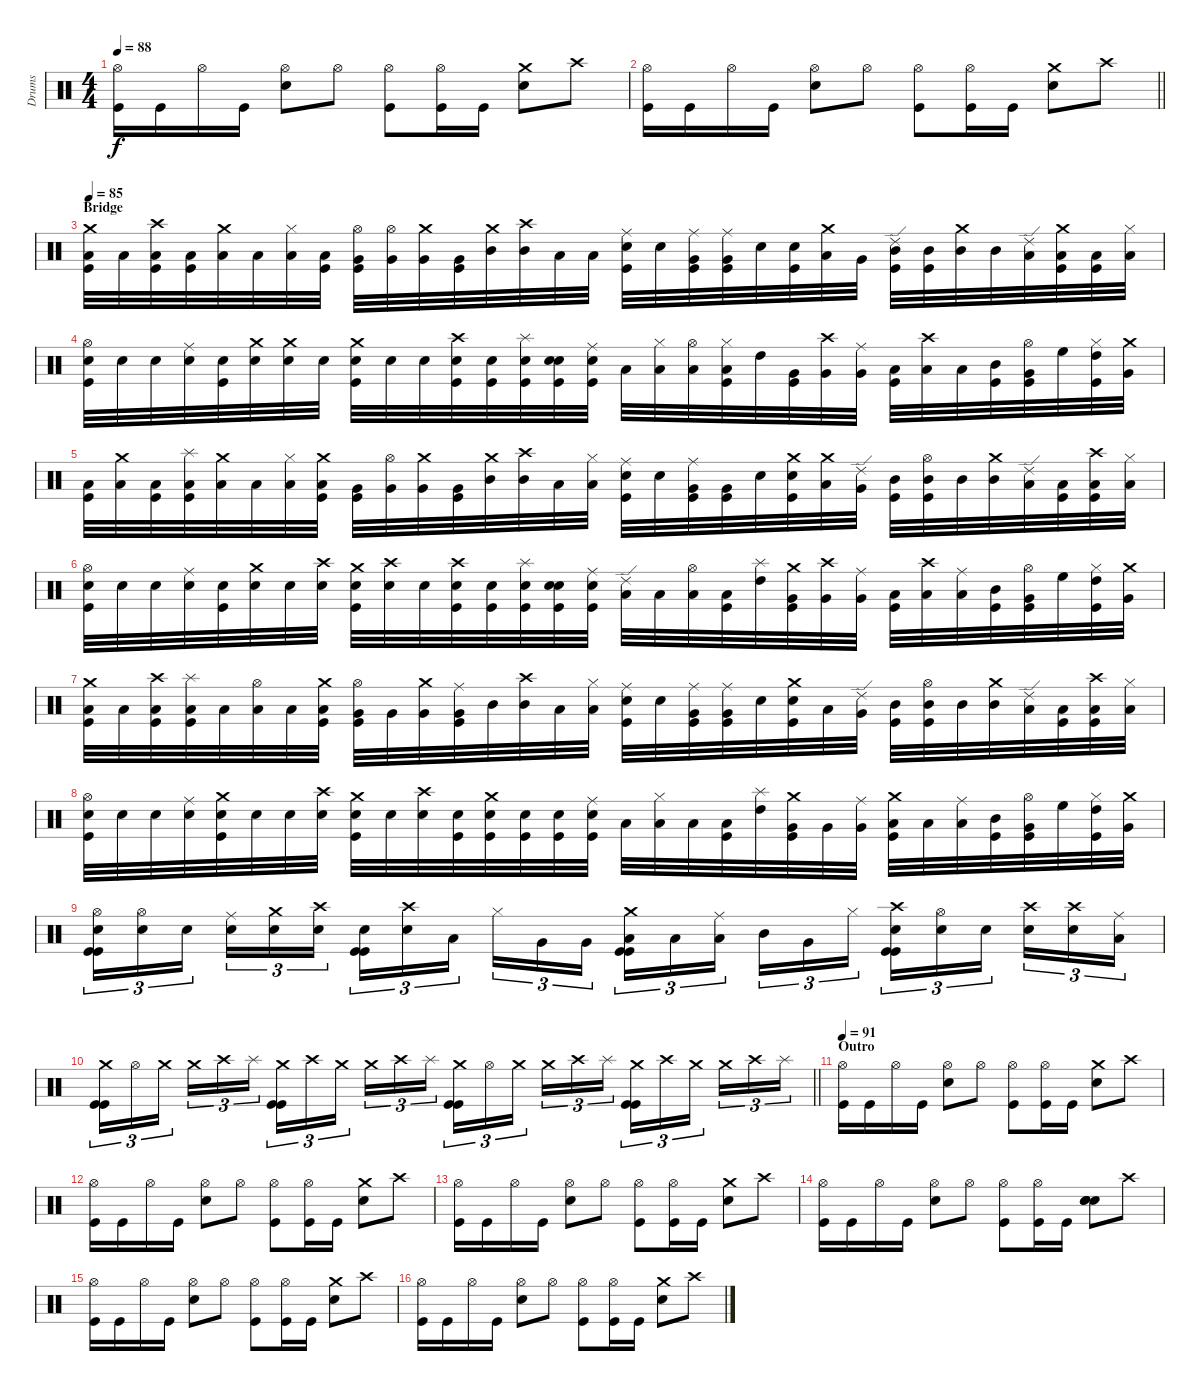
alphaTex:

\track ("Drums" "Drums") {instrument percussion}
\staff {score}
\articulation defaults
\ts (4 4)
\tempo 88
\clef neutral
\ks c
("Hi-Hat (open)" "Kick (hit)").16{dy f} "Kick (hit)".16 "Hi-Hat (open)".16 "Kick (hit)".16 ("Hi-Hat (open)" "Snare (hit) 2").8 "Hi-Hat (open)".8 ("Hi-Hat (open)" "Kick (hit)").8 ("Hi-Hat (open)" "Kick (hit)").16 "Kick (hit)".16 ("Crash medium (hit)" "Snare (hit) 2").8 "Crash high (hit)".8 |
\barLineRight lightlight
("Hi-Hat (open)" "Kick (hit)").16 "Kick (hit)".16 "Hi-Hat (open)".16 "Kick (hit)".16 ("Hi-Hat (open)" "Snare (hit) 2").8 "Hi-Hat (open)".8 ("Hi-Hat (open)" "Kick (hit)").8 ("Hi-Hat (open)" "Kick (hit)").16 "Kick (hit)".16 ("Crash medium (hit)" "Snare (hit) 2").8 "Crash high (hit)".8 |
\section ("" "Bridge")
\tempo 85
("Crash medium (hit)" "Low Floor Tom (hit)" "Kick (hit)").32 "Low Floor Tom (hit)".32 ("Crash high (hit)" "Low Floor Tom (hit)" "Kick (hit)").32 ("Low Floor Tom (hit)" "Kick (hit)").32 ("Crash medium (hit)" "Low Floor Tom (hit)").32 "Low Floor Tom (hit)".32 ("Hi-Hat (closed)" "Low Floor Tom (hit)").32 ("Low Floor Tom (hit)" "Kick (hit)").32 ("Hi-Hat (open)" "Very Low Tom (hit)" "Kick (hit)").32 ("Hi-Hat (open)" "Very Low Tom (hit)").32 ("Crash medium (hit)" "Very Low Tom (hit)").32 ("Very Low Tom (hit)" "Kick (hit)").32 ("Crash medium (hit)" "Mid Tom (hit)").32 ("Crash high (hit)" "Mid Tom (hit)").32 "Low Tom (hit)".32 "Low Tom (hit)".32 ("Ride (middle)" "Snare (hit) 2" "Kick (hit)").32 "Snare (hit) 2".32 ("Ride (middle)" "Very Low Tom (hit)" "Kick (hit)").32 ("Ride (middle)" "Very Low Tom (hit)" "Kick (hit)").32 "Snare (hit) 2".32 ("Snare (hit) 2" "Kick (hit)").32 ("Crash medium (hit)" "Low Floor Tom (hit)").32 "Very Low Tom (hit)".32 ("Ride (edge) 2" "Mid Tom (hit)" "Kick (hit)").32 ("Mid Tom (hit)" "Kick (hit)").32 ("Crash medium (hit)" "Mid Tom (hit)").32 "Mid Tom (hit)".32 ("Ride (edge) 2" "Low Tom (hit)").32 ("Crash medium (hit)" "Low Tom (hit)" "Kick (hit)").32 ("Low Tom (hit)" "Kick (hit)").32 ("Hi-Hat (closed)" "Low Tom (hit)").32 |
("Hi-Hat (open)" "Snare (hit) 2" "Kick (hit)").32 "Snare (hit) 2".32 "Snare (hit) 2".32 ("Ride (middle)" "Snare (hit) 2").32 ("Snare (hit) 2" "Kick (hit)").32 ("Crash medium (hit)" "Snare (hit) 2").32 ("Crash medium (hit)" "Snare (hit) 2").32 "Snare (hit) 2".32 ("Crash medium (hit)" "Snare (hit) 2" "Kick (hit)").32 "Snare (hit) 2".32 "Snare (hit) 2".32 ("Crash high (hit)" "Snare (hit) 2" "Kick (hit)").32 ("Snare (hit) 2" "Kick (hit)").32 ("Splash (hit)" "Snare (hit) 2" "Kick (hit)").32 ("Snare (hit)" "Snare (hit) 2" "Kick (hit)").32 ("Ride (middle)" "Snare (hit) 2" "Kick (hit)").32 "Low Floor Tom (hit)".32 ("Hi-Hat (closed)" "Low Floor Tom (hit)").32 ("Hi-Hat (open)" "Low Tom (hit)").32 ("Hi-Hat (closed)" "Low Floor Tom (hit)" "Kick (hit)").32 "High Tom (hit)".32 ("Very Low Tom (hit)" "Kick (hit)").32 ("Crash high (hit)" "Very Low Tom (hit)").32 ("Ride (middle)" "Very Low Tom (hit)").32 ("Low Tom (hit)" "Kick (hit)").32 ("Crash high (hit)" "Low Tom (hit)").32 "Low Tom (hit)".32 ("Mid Tom (hit)" "Kick (hit)").32 ("Hi-Hat (open)" "Very Low Tom (hit)" "Kick (hit)").32 "High Floor Tom (hit)".32 ("Hi-Hat (closed)" "High Tom (hit)" "Kick (hit)").32 ("Crash medium (hit)" "Very Low Tom (hit)").32 |
("Low Floor Tom (hit)" "Kick (hit)").32 ("Crash medium (hit)" "Low Floor Tom (hit)").32 ("Low Floor Tom (hit)" "Kick (hit)").32 ("Splash (hit)" "Low Floor Tom (hit)" "Kick (hit)").32 ("Crash medium (hit)" "Low Floor Tom (hit)").32 "Low Floor Tom (hit)".32 ("Hi-Hat (closed)" "Low Floor Tom (hit)").32 ("Crash medium (hit)" "Low Floor Tom (hit)" "Kick (hit)").32 ("Very Low Tom (hit)" "Kick (hit)").32 ("Hi-Hat (open)" "Very Low Tom (hit)").32 ("Crash medium (hit)" "Very Low Tom (hit)").32 ("Very Low Tom (hit)" "Kick (hit)").32 ("Crash medium (hit)" "Mid Tom (hit)").32 ("Crash high (hit)" "Mid Tom (hit)").32 "Low Tom (hit)".32 ("Hi-Hat (closed)" "Low Tom (hit)").32 ("Ride (middle)" "Snare (hit) 2" "Kick (hit)").32 "Snare (hit) 2".32 ("Ride (middle)" "Very Low Tom (hit)" "Kick (hit)").32 ("Very Low Tom (hit)" "Kick (hit)").32 "Snare (hit) 2".32 ("Crash medium (hit)" "Snare (hit) 2" "Kick (hit)").32 ("Crash medium (hit)" "Low Floor Tom (hit)").32 ("Ride (edge) 2" "Very Low Tom (hit)").32 ("Mid Tom (hit)" "Kick (hit)").32 ("Hi-Hat (open)" "Mid Tom (hit)" "Kick (hit)").32 "Mid Tom (hit)".32 ("Crash medium (hit)" "Mid Tom (hit)").32 ("Ride (edge) 2" "Low Tom (hit)").32 ("Low Tom (hit)" "Kick (hit)").32 ("Crash high (hit)" "Low Tom (hit)" "Kick (hit)").32 ("Hi-Hat (closed)" "Low Tom (hit)").32 |
("Hi-Hat (open)" "Snare (hit) 2" "Kick (hit)").32 "Snare (hit) 2".32 "Snare (hit) 2".32 ("Ride (middle)" "Snare (hit) 2").32 ("Snare (hit) 2" "Kick (hit)").32 ("Crash medium (hit)" "Snare (hit) 2").32 "Snare (hit) 2".32 ("Crash high (hit)" "Snare (hit) 2").32 ("Crash medium (hit)" "Snare (hit) 2" "Kick (hit)").32 ("Crash high (hit)" "Snare (hit) 2").32 "Snare (hit) 2".32 ("Crash high (hit)" "Snare (hit) 2" "Kick (hit)").32 ("Snare (hit) 2" "Kick (hit)").32 ("Splash (hit)" "Snare (hit) 2" "Kick (hit)").32 ("Snare (hit)" "Snare (hit) 2" "Kick (hit)").32 ("Ride (middle)" "Snare (hit) 2" "Kick (hit)").32 ("Ride (edge) 2" "Low Floor Tom (hit)").32 "Low Floor Tom (hit)".32 ("Hi-Hat (open)" "Low Tom (hit)").32 ("Low Floor Tom (hit)" "Kick (hit)").32 ("Splash (hit)" "High Tom (hit)").32 ("Crash medium (hit)" "Very Low Tom (hit)" "Kick (hit)").32 ("Crash high (hit)" "Very Low Tom (hit)").32 ("Ride (middle)" "Very Low Tom (hit)").32 ("Low Tom (hit)" "Kick (hit)").32 ("Crash high (hit)" "Low Tom (hit)").32 ("Ride (middle)" "Low Tom (hit)").32 ("Mid Tom (hit)" "Kick (hit)").32 ("Hi-Hat (open)" "Very Low Tom (hit)" "Kick (hit)").32 "High Floor Tom (hit)".32 ("Hi-Hat (closed)" "High Tom (hit)" "Kick (hit)").32 ("Crash medium (hit)" "Very Low Tom (hit)").32 |
("Crash medium (hit)" "Low Floor Tom (hit)" "Kick (hit)").32 "Low Floor Tom (hit)".32 ("Crash high (hit)" "Low Floor Tom (hit)" "Kick (hit)").32 ("Splash (hit)" "Low Floor Tom (hit)" "Kick (hit)").32 "Low Floor Tom (hit)".32 ("Hi-Hat (open)" "Low Floor Tom (hit)").32 "Low Floor Tom (hit)".32 ("Crash medium (hit)" "Low Floor Tom (hit)" "Kick (hit)").32 ("Hi-Hat (open)" "Very Low Tom (hit)" "Kick (hit)").32 "Very Low Tom (hit)".32 ("Crash medium (hit)" "Very Low Tom (hit)").32 ("Ride (middle)" "Very Low Tom (hit)" "Kick (hit)").32 "Mid Tom (hit)".32 ("Crash high (hit)" "Mid Tom (hit)").32 "Low Tom (hit)".32 ("Hi-Hat (closed)" "Low Tom (hit)").32 ("Ride (middle)" "Snare (hit) 2" "Kick (hit)").32 "Snare (hit) 2".32 ("Ride (middle)" "Very Low Tom (hit)" "Kick (hit)").32 ("Ride (middle)" "Very Low Tom (hit)" "Kick (hit)").32 "Snare (hit) 2".32 ("Crash medium (hit)" "Snare (hit) 2" "Kick (hit)").32 "Low Floor Tom (hit)".32 ("Ride (edge) 2" "Very Low Tom (hit)").32 ("Mid Tom (hit)" "Kick (hit)").32 ("Hi-Hat (open)" "Mid Tom (hit)" "Kick (hit)").32 "Mid Tom (hit)".32 ("Crash medium (hit)" "Mid Tom (hit)").32 ("Ride (edge) 2" "Low Tom (hit)").32 ("Low Tom (hit)" "Kick (hit)").32 ("Crash high (hit)" "Low Tom (hit)" "Kick (hit)").32 ("Hi-Hat (closed)" "Low Tom (hit)").32 |
("Hi-Hat (open)" "Snare (hit) 2" "Kick (hit)").32 "Snare (hit) 2".32 "Snare (hit) 2".32 ("Ride (middle)" "Snare (hit) 2").32 ("Crash medium (hit)" "Snare (hit) 2" "Kick (hit)").32 "Snare (hit) 2".32 "Snare (hit) 2".32 ("Crash high (hit)" "Snare (hit) 2").32 ("Crash medium (hit)" "Snare (hit) 2" "Kick (hit)").32 "Snare (hit) 2".32 ("Crash high (hit)" "Snare (hit) 2").32 ("Snare (hit) 2" "Kick (hit)").32 ("Crash medium (hit)" "Snare (hit) 2" "Kick (hit)").32 ("Snare (hit) 2" "Kick (hit)").32 ("Snare (hit) 2" "Kick (hit)").32 ("Ride (middle)" "Snare (hit) 2" "Kick (hit)").32 "Low Floor Tom (hit)".32 ("Hi-Hat (closed)" "Low Floor Tom (hit)").32 "Low Tom (hit)".32 ("Low Floor Tom (hit)" "Kick (hit)").32 ("Splash (hit)" "High Tom (hit)").32 ("Crash medium (hit)" "Very Low Tom (hit)" "Kick (hit)").32 "Very Low Tom (hit)".32 ("Ride (middle)" "Very Low Tom (hit)").32 ("Crash medium (hit)" "Low Tom (hit)" "Kick (hit)").32 "Low Tom (hit)".32 ("Ride (middle)" "Low Tom (hit)").32 ("Mid Tom (hit)" "Kick (hit)").32 ("Hi-Hat (open)" "Very Low Tom (hit)" "Kick (hit)").32 "High Floor Tom (hit)".32 ("Hi-Hat (closed)" "High Tom (hit)" "Kick (hit)").32 ("Crash medium (hit)" "Very Low Tom (hit)").32 |
("Hi-Hat (open)" "Snare (hit) 2" "Kick (hit)" "Kick (hit)").16{tu (3 2)} ("Hi-Hat (open)" "Snare (hit) 2").16{tu (3 2)} "Snare (hit) 2".16{tu (3 2) beam splitsecondary} ("Ride (middle)" "Snare (hit) 2").16{tu (3 2)} ("Crash medium (hit)" "Snare (hit) 2").16{tu (3 2)} ("Crash high (hit)" "Snare (hit) 2").16{tu (3 2)} ("Snare (hit) 2" "Kick (hit)" "Kick (hit)").16{tu (3 2)} ("Crash high (hit)" "Snare (hit) 2").16{tu (3 2)} "Low Floor Tom (hit)".16{tu (3 2) beam splitsecondary} "Hi-Hat (closed)".16{tu (3 2)} "Very Low Tom (hit)".16{tu (3 2)} "Very Low Tom (hit)".16{tu (3 2)} ("Crash medium (hit)" "Low Tom (hit)" "Kick (hit)" "Kick (hit)").16{tu (3 2)} "Low Tom (hit)".16{tu (3 2)} ("Ride (middle)" "Low Tom (hit)").16{tu (3 2) beam splitsecondary} "Mid Tom (hit)".16{tu (3 2)} "Very Low Tom (hit)".16{tu (3 2)} "Hi-Hat (closed)".16{tu (3 2)} ("Crash high (hit)" "Snare (hit) 2" "Kick (hit)" "Kick (hit)").16{tu (3 2)} ("Hi-Hat (open)" "Snare (hit) 2").16{tu (3 2)} "Snare (hit) 2".16{tu (3 2) beam splitsecondary} ("Crash high (hit)" "Snare (hit) 2").16{tu (3 2)} ("Crash high (hit)" "Snare (hit) 2").16{tu (3 2)} ("Ride (middle)" "Low Tom (hit)").16{tu (3 2)} |
\barLineRight lightlight
("Crash medium (hit)" "Kick (hit)" "Kick (hit)").16{tu (3 2)} "Hi-Hat (open)".16{tu (3 2)} "Crash medium (hit)".16{tu (3 2) beam splitsecondary} "Crash medium (hit)".16{tu (3 2)} "Crash high (hit)".16{tu (3 2)} "Splash (hit)".16{tu (3 2)} ("Crash medium (hit)" "Kick (hit)" "Kick (hit)").16{tu (3 2)} "Crash high (hit)".16{tu (3 2)} "Crash medium (hit)".16{tu (3 2) beam splitsecondary} "Crash medium (hit)".16{tu (3 2)} "Crash high (hit)".16{tu (3 2)} "Splash (hit)".16{tu (3 2)} ("Crash medium (hit)" "Kick (hit)" "Kick (hit)").16{tu (3 2)} "Hi-Hat (open)".16{tu (3 2)} "Crash medium (hit)".16{tu (3 2) beam splitsecondary} "Crash medium (hit)".16{tu (3 2)} "Crash high (hit)".16{tu (3 2)} "Splash (hit)".16{tu (3 2)} ("Crash medium (hit)" "Kick (hit)" "Kick (hit)").16{tu (3 2)} "Crash high (hit)".16{tu (3 2)} "Crash medium (hit)".16{tu (3 2) beam splitsecondary} "Crash medium (hit)".16{tu (3 2)} "Crash high (hit)".16{tu (3 2)} "Splash (hit)".16{tu (3 2)} |
\section ("" "Outro")
\tempo 91
("Hi-Hat (open)" "Kick (hit)").16 "Kick (hit)".16 "Hi-Hat (open)".16 "Kick (hit)".16 ("Hi-Hat (open)" "Snare (hit) 2").8 "Hi-Hat (open)".8 ("Hi-Hat (open)" "Kick (hit)").8 ("Hi-Hat (open)" "Kick (hit)").16 "Kick (hit)".16 ("Crash medium (hit)" "Snare (hit) 2").8 "Crash high (hit)".8 |
("Hi-Hat (open)" "Kick (hit)").16 "Kick (hit)".16 "Hi-Hat (open)".16 "Kick (hit)".16 ("Hi-Hat (open)" "Snare (hit) 2").8 "Hi-Hat (open)".8 ("Hi-Hat (open)" "Kick (hit)").8 ("Hi-Hat (open)" "Kick (hit)").16 "Kick (hit)".16 ("Crash medium (hit)" "Snare (hit) 2").8 "Crash high (hit)".8 |
("Hi-Hat (open)" "Kick (hit)").16 "Kick (hit)".16 "Hi-Hat (open)".16 "Kick (hit)".16 ("Hi-Hat (open)" "Snare (hit) 2").8 "Hi-Hat (open)".8 ("Hi-Hat (open)" "Kick (hit)").8 ("Hi-Hat (open)" "Kick (hit)").16 "Kick (hit)".16 ("Crash medium (hit)" "Snare (hit) 2").8 "Crash high (hit)".8 |
("Hi-Hat (open)" "Kick (hit)").16 "Kick (hit)".16 "Hi-Hat (open)".16 "Kick (hit)".16 ("Hi-Hat (open)" "Snare (hit) 2").8 "Hi-Hat (open)".8 ("Hi-Hat (open)" "Kick (hit)").8 ("Hi-Hat (open)" "Kick (hit)").16 "Kick (hit)".16 ("Electric Snare (hit)" "Snare (hit) 2" "Electric Snare (hit)").8 "Crash high (hit)".8 |
("Hi-Hat (open)" "Kick (hit)").16 "Kick (hit)".16 "Hi-Hat (open)".16 "Kick (hit)".16 ("Hi-Hat (open)" "Snare (hit) 2").8 "Hi-Hat (open)".8 ("Hi-Hat (open)" "Kick (hit)").8 ("Hi-Hat (open)" "Kick (hit)").16 "Kick (hit)".16 ("Crash medium (hit)" "Snare (hit) 2").8 "Crash high (hit)".8 |
("Hi-Hat (open)" "Kick (hit)").16 "Kick (hit)".16 "Hi-Hat (open)".16 "Kick (hit)".16 ("Hi-Hat (open)" "Snare (hit) 2").8 "Hi-Hat (open)".8 ("Hi-Hat (open)" "Kick (hit)").8 ("Hi-Hat (open)" "Kick (hit)").16 "Kick (hit)".16 ("Crash medium (hit)" "Snare (hit) 2").8 "Crash high (hit)".8
